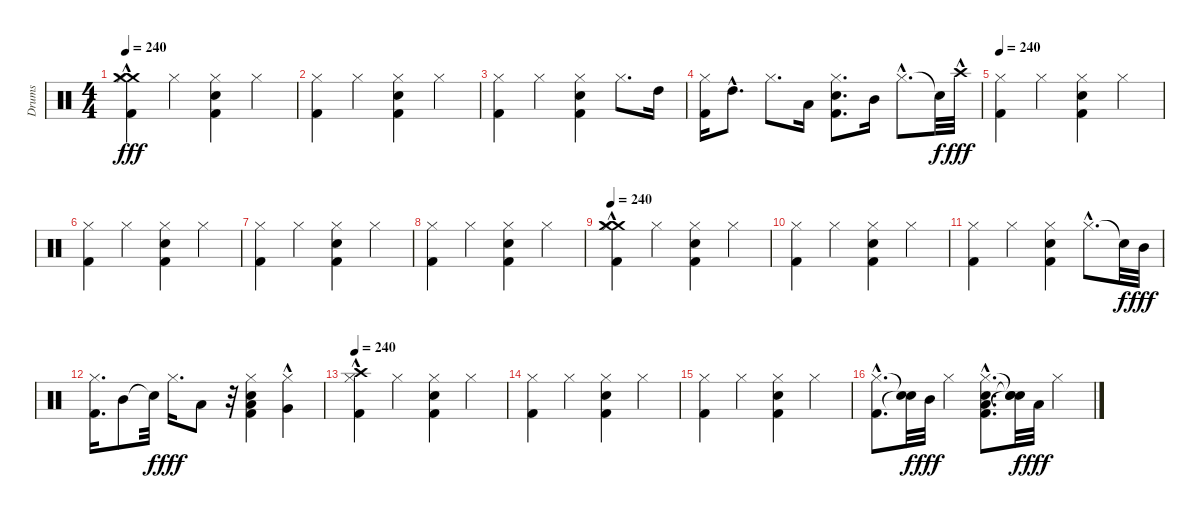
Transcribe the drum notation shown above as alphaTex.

\track ("Drums" "Drums") {instrument percussion}
\staff {score}
\articulation defaults
\ts (4 4)
\tempo 240
\clef neutral
\ks c
("Crash medium (hit)" "Crash medium (hit)"{hac} "Hi-Hat (closed)" "Kick (hit) 2").4{dy fff} "Hi-Hat (closed)".4 ("Hi-Hat (closed)" "Kick (hit) 2" "Snare (hit) 2").4 "Hi-Hat (closed)".4 |
("Hi-Hat (closed)" "Kick (hit) 2").4 "Hi-Hat (closed)".4 ("Hi-Hat (closed)" "Kick (hit) 2" "Snare (hit) 2").4 "Hi-Hat (closed)".4 |
("Hi-Hat (closed)" "Kick (hit) 2").4 "Hi-Hat (closed)".4 ("Hi-Hat (closed)" "Snare (hit) 2" "Kick (hit) 2").4 "Hi-Hat (closed)".8{d} "High Tom (hit)".16 |
("Hi-Hat (closed)" "Kick (hit) 2").16 "High Tom (hit)"{hac}.8{d} "Hi-Hat (closed)".8{d} "Low Tom (hit)".16 ("Hi-Hat (closed)" "Kick (hit) 2" "Snare (hit) 2").8{d} "Mid Tom (hit)".16 "Hi-Hat (closed)"{hac}.8{d} "Snare (hit)"{t}.32{dy f} "Crash high (hit)"{hac}.32{dy fff} |
\tempo 240
("Hi-Hat (closed)" "Kick (hit) 2").4 "Hi-Hat (closed)".4 ("Hi-Hat (closed)" "Kick (hit) 2" "Snare (hit) 2").4 "Hi-Hat (closed)".4 |
("Hi-Hat (closed)" "Kick (hit) 2").4 "Hi-Hat (closed)".4 ("Hi-Hat (closed)" "Snare (hit) 2" "Kick (hit) 2").4 "Hi-Hat (closed)".4 |
("Hi-Hat (closed)" "Kick (hit) 2").4 "Hi-Hat (closed)".4 ("Hi-Hat (closed)" "Kick (hit) 2" "Snare (hit) 2").4 "Hi-Hat (closed)".4 |
("Hi-Hat (closed)" "Kick (hit) 2").4 "Hi-Hat (closed)".4 ("Hi-Hat (closed)" "Kick (hit) 2" "Snare (hit) 2").4 "Hi-Hat (closed)".4 |
\tempo 240
("Crash medium (hit)" "Hi-Hat (closed)" "Crash medium (hit)"{hac} "Kick (hit) 2").4 "Hi-Hat (closed)".4 ("Hi-Hat (closed)" "Kick (hit) 2" "Snare (hit) 2").4 "Hi-Hat (closed)".4 |
("Hi-Hat (closed)" "Kick (hit) 2").4 "Hi-Hat (closed)".4 ("Hi-Hat (closed)" "Kick (hit) 2" "Snare (hit) 2").4 "Hi-Hat (closed)".4 |
("Hi-Hat (closed)" "Kick (hit) 2").4 "Hi-Hat (closed)".4 ("Hi-Hat (closed)" "Snare (hit) 2" "Kick (hit) 2").4 "Hi-Hat (closed)"{hac}.8{d} "Snare (hit)"{t}.32{dy f} "Mid Tom (hit)".32{dy fff} |
("Hi-Hat (closed)" "Kick (hit) 2").16{d} "Mid Tom (hit)".8 "Snare (hit)"{t}.32{dy f} "Hi-Hat (closed)".16{d dy fff} "Low Floor Tom (hit)".8 r.32 ("Low Tom (hit)" "Hi-Hat (closed)" "Kick (hit) 2" "Snare (hit) 2").4 ("Very Low Tom (hit)"{hac} "Hi-Hat (closed)").4 |
\tempo 240
("Crash high (hit)"{hac} "Hi-Hat (closed)" "Kick (hit) 2").4 "Hi-Hat (closed)".4 ("Hi-Hat (closed)" "Kick (hit) 2" "Snare (hit) 2").4 "Hi-Hat (closed)".4 |
("Hi-Hat (closed)" "Kick (hit) 2").4 "Hi-Hat (closed)".4 ("Hi-Hat (closed)" "Snare (hit) 2" "Kick (hit) 2").4 "Hi-Hat (closed)".4 |
("Hi-Hat (closed)" "Kick (hit) 2").4 "Hi-Hat (closed)".4 ("Hi-Hat (closed)" "Kick (hit) 2" "Snare (hit) 2").4 "Hi-Hat (closed)".4 |
("Hi-Hat (closed)"{hac} "Kick (hit) 2"{hac}).8{d} ("Snare (hit)"{t} "Snare (hit)"{t}).32{dy f} "Mid Tom (hit)".32{dy fff} "Hi-Hat (closed)".4 ("Hi-Hat (closed)"{hac} "Kick (hit) 2"{hac} "Snare (hit) 2"{hac} "Low Floor Tom (hit)").8{d} ("Snare (hit)"{t} "Snare (hit)"{t} "Snare (hit)"{t}).32{dy f} "Low Floor Tom (hit)".32{dy fff} "Hi-Hat (closed)".4
